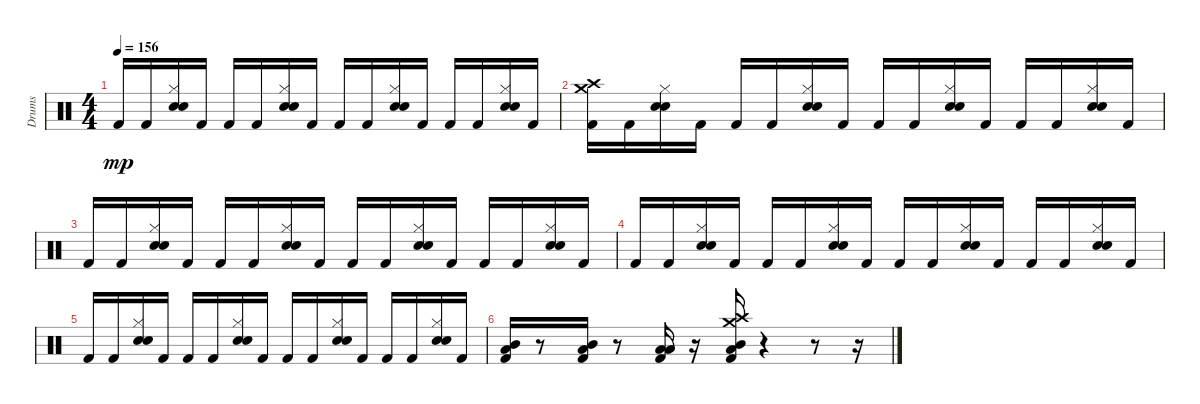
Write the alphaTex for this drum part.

\track ("Drums" "Drums") {instrument percussion}
\staff {score}
\articulation defaults
\ts (4 4)
\tempo 156
\clef neutral
\ks c "Kick (hit) 2".16{dy mp} "Kick (hit) 2".16
("Electric Snare (hit)" "Hi-Hat (closed)" "Snare (hit) 2").16 "Kick (hit) 2".16 "Kick (hit) 2".16 "Kick (hit) 2".16 ("Snare (hit) 2" "Hi-Hat (closed)" "Electric Snare (hit)").16 "Kick (hit) 2".16 "Kick (hit) 2".16 "Kick (hit) 2".16 ("Electric Snare (hit)" "Hi-Hat (closed)" "Snare (hit) 2").16 "Kick (hit) 2".16 "Kick (hit) 2".16 "Kick (hit) 2".16 ("Electric Snare (hit)" "Snare (hit) 2" "Hi-Hat (closed)").16 "Kick (hit) 2".16 |
("Crash medium (hit)" "Crash high (hit)" "Kick (hit) 2").16 "Kick (hit) 2".16 ("Electric Snare (hit)" "Snare (hit) 2" "Hi-Hat (closed)").16 "Kick (hit) 2".16 "Kick (hit) 2".16 "Kick (hit) 2".16 ("Hi-Hat (closed)" "Electric Snare (hit)" "Snare (hit) 2").16 "Kick (hit) 2".16 "Kick (hit) 2".16 "Kick (hit) 2".16 ("Snare (hit) 2" "Hi-Hat (closed)" "Electric Snare (hit)").16 "Kick (hit) 2".16 "Kick (hit) 2".16 "Kick (hit) 2".16 ("Snare (hit) 2" "Hi-Hat (closed)" "Electric Snare (hit)").16 "Kick (hit) 2".16 |
"Kick (hit) 2".16 "Kick (hit) 2".16 ("Snare (hit) 2" "Hi-Hat (closed)" "Electric Snare (hit)").16 "Kick (hit) 2".16 "Kick (hit) 2".16 "Kick (hit) 2".16 ("Snare (hit) 2" "Hi-Hat (closed)" "Electric Snare (hit)").16 "Kick (hit) 2".16 "Kick (hit) 2".16 "Kick (hit) 2".16 ("Snare (hit) 2" "Electric Snare (hit)" "Hi-Hat (closed)").16 "Kick (hit) 2".16 "Kick (hit) 2".16 "Kick (hit) 2".16 ("Snare (hit) 2" "Hi-Hat (closed)" "Electric Snare (hit)").16 "Kick (hit) 2".16 |
"Kick (hit) 2".16 "Kick (hit) 2".16 ("Hi-Hat (closed)" "Snare (hit) 2" "Electric Snare (hit)").16 "Kick (hit) 2".16 "Kick (hit) 2".16 "Kick (hit) 2".16 ("Hi-Hat (closed)" "Electric Snare (hit)" "Snare (hit) 2").16 "Kick (hit) 2".16 "Kick (hit) 2".16 "Kick (hit) 2".16 ("Hi-Hat (closed)" "Snare (hit) 2" "Electric Snare (hit)").16 "Kick (hit) 2".16 "Kick (hit) 2".16 "Kick (hit) 2".16 ("Hi-Hat (closed)" "Snare (hit) 2" "Electric Snare (hit)").16 "Kick (hit) 2".16 |
"Kick (hit) 2".16 "Kick (hit) 2".16 ("Snare (hit) 2" "Hi-Hat (closed)" "Electric Snare (hit)").16 "Kick (hit) 2".16 "Kick (hit) 2".16 "Kick (hit) 2".16 ("Electric Snare (hit)" "Snare (hit) 2" "Hi-Hat (closed)").16 "Kick (hit) 2".16 "Kick (hit) 2".16 "Kick (hit) 2".16 ("Snare (hit) 2" "Electric Snare (hit)" "Hi-Hat (closed)").16 "Kick (hit) 2".16 "Kick (hit) 2".16 "Kick (hit) 2".16 ("Hi-Hat (closed)" "Snare (hit) 2" "Electric Snare (hit)").16 "Kick (hit) 2".16 |
("Kick (hit) 2" "Low Floor Tom (hit)" "Mid Tom (hit)").16 r.8 ("Kick (hit) 2" "Mid Tom (hit)" "Low Floor Tom (hit)").16 r.8 ("Kick (hit) 2" "Low Floor Tom (hit)" "Low Tom (hit)").16 r.16 ("Crash medium (hit)" "Crash high (hit)" "Kick (hit) 2" "Low Floor Tom (hit)" "Mid Tom (hit)").16 r.4 r.8 r.16
